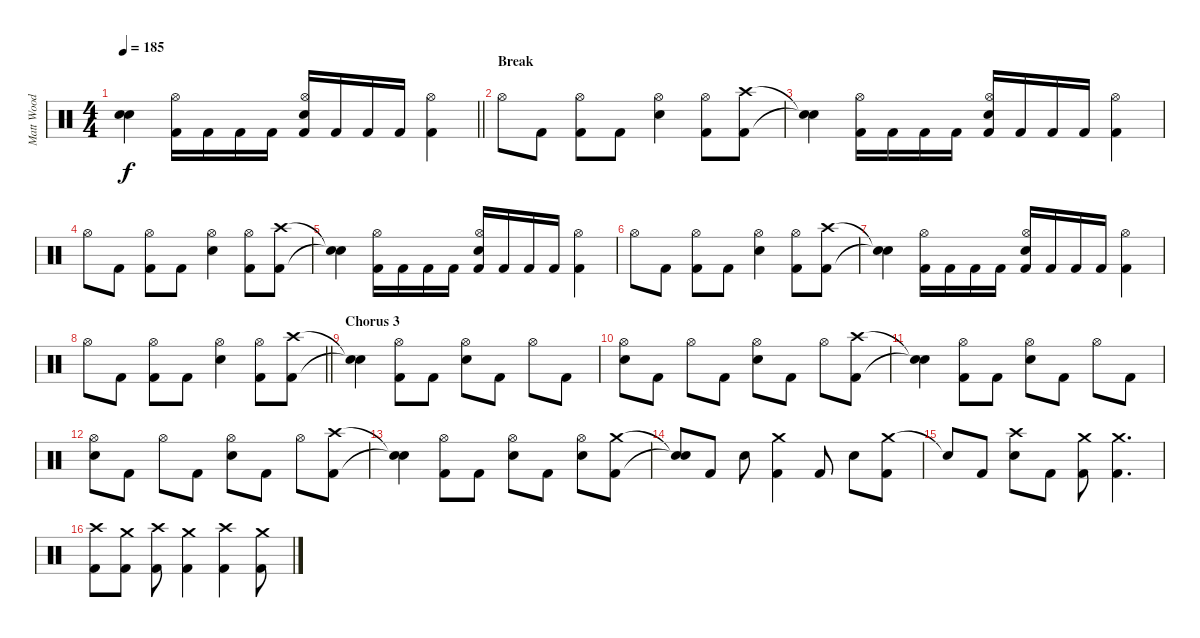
\track ("Matt Wood" "Matt Wood") {instrument percussion}
\staff {score}
\articulation defaults
\ts (4 4)
\tempo 185
\clef neutral
\barLineRight lightlight
\ks c
("Snare (hit)"{t} "Snare (hit)"{t}).4{dy f} ("Hi-Hat (open)" "Kick (hit) 2").16 "Kick (hit) 2".16 "Kick (hit) 2".16 "Kick (hit) 2".16 ("Hi-Hat (open)" "Snare (hit) 2" "Kick (hit) 2").16 "Kick (hit) 2".16 "Kick (hit) 2".16 "Kick (hit) 2".16 ("Hi-Hat (open)" "Kick (hit) 2").4 |
\section ("" "Break")
"Hi-Hat (open)".8 "Kick (hit) 2".8 ("Hi-Hat (open)" "Kick (hit) 2").8 "Kick (hit) 2".8 ("Hi-Hat (open)" "Snare (hit) 2").4 ("Hi-Hat (open)" "Kick (hit) 2").8 ("Crash high (hit)" "Kick (hit) 2").8 |
("Snare (hit)"{t} "Snare (hit)"{t}).4 ("Hi-Hat (open)" "Kick (hit) 2").16 "Kick (hit) 2".16 "Kick (hit) 2".16 "Kick (hit) 2".16 ("Hi-Hat (open)" "Snare (hit) 2" "Kick (hit) 2").16 "Kick (hit) 2".16 "Kick (hit) 2".16 "Kick (hit) 2".16 ("Hi-Hat (open)" "Kick (hit) 2").4 |
"Hi-Hat (open)".8 "Kick (hit) 2".8 ("Hi-Hat (open)" "Kick (hit) 2").8 "Kick (hit) 2".8 ("Hi-Hat (open)" "Snare (hit) 2").4 ("Hi-Hat (open)" "Kick (hit) 2").8 ("Crash high (hit)" "Kick (hit) 2").8 |
("Snare (hit)"{t} "Snare (hit)"{t}).4 ("Hi-Hat (open)" "Kick (hit) 2").16 "Kick (hit) 2".16 "Kick (hit) 2".16 "Kick (hit) 2".16 ("Hi-Hat (open)" "Snare (hit) 2" "Kick (hit) 2").16 "Kick (hit) 2".16 "Kick (hit) 2".16 "Kick (hit) 2".16 ("Hi-Hat (open)" "Kick (hit) 2").4 |
"Hi-Hat (open)".8 "Kick (hit) 2".8 ("Hi-Hat (open)" "Kick (hit) 2").8 "Kick (hit) 2".8 ("Hi-Hat (open)" "Snare (hit) 2").4 ("Hi-Hat (open)" "Kick (hit) 2").8 ("Crash high (hit)" "Kick (hit) 2").8 |
("Snare (hit)"{t} "Snare (hit)"{t}).4 ("Hi-Hat (open)" "Kick (hit) 2").16 "Kick (hit) 2".16 "Kick (hit) 2".16 "Kick (hit) 2".16 ("Hi-Hat (open)" "Snare (hit) 2" "Kick (hit) 2").16 "Kick (hit) 2".16 "Kick (hit) 2".16 "Kick (hit) 2".16 ("Hi-Hat (open)" "Kick (hit) 2").4 |
\barLineRight lightlight "Hi-Hat (open)".8 "Kick (hit) 2".8
("Hi-Hat (open)" "Kick (hit) 2").8 "Kick (hit) 2".8 ("Hi-Hat (open)" "Snare (hit) 2").4 ("Hi-Hat (open)" "Kick (hit) 2").8 ("Crash high (hit)" "Kick (hit) 2").8 |
\section ("" "Chorus 3")
("Snare (hit)"{t} "Snare (hit)"{t}).4 ("Hi-Hat (open)" "Kick (hit) 2").8 "Kick (hit) 2".8 ("Hi-Hat (open)" "Snare (hit) 2").8 "Kick (hit) 2".8 "Hi-Hat (open)".8 "Kick (hit) 2".8 |
("Hi-Hat (open)" "Snare (hit) 2").8 "Kick (hit) 2".8 "Hi-Hat (open)".8 "Kick (hit) 2".8 ("Hi-Hat (open)" "Snare (hit) 2").8 "Kick (hit) 2".8 "Hi-Hat (open)".8 ("Crash high (hit)" "Kick (hit) 2").8 |
("Snare (hit)"{t} "Snare (hit)"{t}).4 ("Hi-Hat (open)" "Kick (hit) 2").8 "Kick (hit) 2".8 ("Hi-Hat (open)" "Snare (hit) 2").8 "Kick (hit) 2".8 "Hi-Hat (open)".8 "Kick (hit) 2".8 |
("Hi-Hat (open)" "Snare (hit) 2").8 "Kick (hit) 2".8 "Hi-Hat (open)".8 "Kick (hit) 2".8 ("Hi-Hat (open)" "Snare (hit) 2").8 "Kick (hit) 2".8 "Hi-Hat (open)".8 ("Crash high (hit)" "Kick (hit) 2").8 |
("Snare (hit)"{t} "Snare (hit)"{t}).4 ("Hi-Hat (open)" "Kick (hit) 2").8 "Kick (hit) 2".8 ("Hi-Hat (open)" "Snare (hit) 2").8 "Kick (hit) 2".8 ("Hi-Hat (open)" "Snare (hit) 2").8 ("Crash medium (hit)" "Kick (hit) 2").8 |
("Snare (hit)"{t} "Snare (hit)"{t}).8 "Kick (hit) 2".8 "Snare (hit) 2".8 ("Crash medium (hit)" "Kick (hit) 2").4 "Kick (hit) 2".8 "Snare (hit) 2".8 ("Crash medium (hit)" "Kick (hit) 2").8 |
"Snare (hit)"{t}.8 "Kick (hit) 2".8 ("Crash high (hit)" "Snare (hit) 2").8 "Kick (hit) 2".8 ("Crash medium (hit)" "Kick (hit) 2").8 ("Crash medium (hit)" "Kick (hit) 2").4{d} |
("Crash high (hit)" "Kick (hit) 2").8 ("Crash medium (hit)" "Kick (hit) 2").8 ("Crash high (hit)" "Kick (hit) 2").8 ("Crash medium (hit)" "Kick (hit) 2").4 ("Crash high (hit)" "Kick (hit) 2").4 ("Crash medium (hit)" "Kick (hit) 2").8
